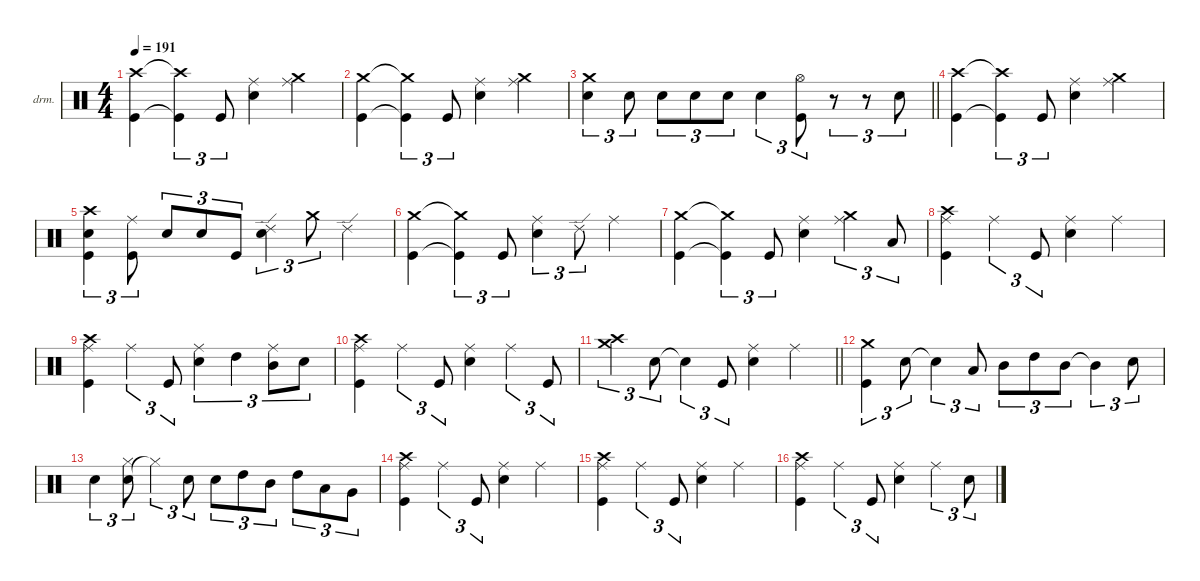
\defaultSystemsLayout 4
\hideDynamics
\bracketExtendMode nobrackets
\firstSystemTrackNameOrientation horizontal
\otherSystemsTrackNameOrientation horizontal
\track ("Drumkit" "drm.") {instrument percussion}
\staff {score}
\articulation defaults
\ts (4 4)
\tempo 191
\clef neutral
\ks c
("Kick (hit)" "Crash high (hit)").4{dy f beam Down} ("Kick (hit)"{t} "Crash high (hit)"{t}).4{tu (3 2) dy mf beam Down} "Kick (hit)".8{tu (3 2) dy f beam Up} ("Snare (hit) 2" "Ride (middle)").4{beam Down} ("Crash medium (hit)" "Ride (middle)").4{dy mp beam Down} |
("Kick (hit)" "Crash medium (hit)").4{dy f beam Down} ("Kick (hit)"{t} "Crash medium (hit)"{t}).4{tu (3 2) dy mf beam Down} "Kick (hit)".8{tu (3 2) dy f beam Up} ("Snare (hit) 2" "Ride (middle)").4{beam Down} ("Crash medium (hit)" "Ride (middle)").4{dy mp beam Down} |
\barLineRight lightlight
("Snare (hit) 2" "Crash medium (hit)").4{tu (3 2) dy f beam Down} "Snare (hit) 2".8{tu (3 2) beam Down} "Snare (hit) 2".8{tu (3 2) beam Down} "Snare (hit) 2".8{tu (3 2) beam Down} "Snare (hit) 2".8{tu (3 2) beam Down} "Snare (hit) 2".4{tu (3 2) beam Down} ("Kick (hit)" "Hi-Hat (open)").8{tu (3 2) dy mf beam Down} r.8{tu (3 2) beam Down} r.8{tu (3 2) beam Down} "Snare (hit) 2".8{tu (3 2) dy f beam Down} |
("Kick (hit)" "Crash high (hit)").4{beam Down} ("Kick (hit)"{t} "Crash high (hit)"{t}).4{tu (3 2) dy mf beam Down} "Kick (hit)".8{tu (3 2) dy f beam Up} ("Snare (hit) 2" "Ride (middle)").4{beam Down} ("Crash medium (hit)" "Ride (middle)").4{dy mp beam Down} |
("Kick (hit)" "Crash high (hit)" "Snare (hit) 2").4{tu (3 2) dy f beam Down} ("Ride (middle)" "Kick (hit)").8{tu (3 2) dy mp beam Down} "Snare (hit) 2".8{tu (3 2) dy mf beam Up} "Snare (hit) 2".8{tu (3 2) beam Up} "Kick (hit)".8{tu (3 2) dy f beam Up} ("Snare (hit) 2" "Ride (edge) 2").4{tu (3 2) beam Down} "Crash medium (hit)".8{tu (3 2) dy mp beam Down} "Ride (edge) 2".4{beam Down} |
("Kick (hit)" "Crash medium (hit)").4{dy f beam Down} ("Kick (hit)"{t} "Crash medium (hit)"{t}).4{tu (3 2) dy mf beam Down} "Kick (hit)".8{tu (3 2) dy f beam Up} ("Snare (hit) 2" "Ride (middle)").4{tu (3 2) beam Down} "Ride (edge) 2".8{tu (3 2) dy mp beam Down} "Ride (middle)".4{dy mf beam Down} |
("Kick (hit)" "Crash medium (hit)").4{dy f beam Down} ("Kick (hit)"{t} "Crash medium (hit)"{t}).4{tu (3 2) dy mf beam Down} "Kick (hit)".8{tu (3 2) dy f beam Up} ("Snare (hit) 2" "Ride (middle)").4{beam Down} ("Crash medium (hit)" "Ride (middle)").4{tu (3 2) dy mp beam Down} "Low Tom (hit)".8{tu (3 2) beam Up} |
("Kick (hit)" "Crash high (hit)" "Ride (middle)").4{dy f beam Down} "Ride (middle)".4{tu (3 2) dy mp beam Down} "Kick (hit)".8{tu (3 2) dy f beam Up} ("Snare (hit) 2" "Ride (middle)").4{beam Down} "Ride (middle)".4{dy mp beam Down} |
("Kick (hit)" "Crash high (hit)" "Ride (middle)").4{dy f beam Down} "Ride (middle)".4{tu (3 2) dy mp beam Down} "Kick (hit)".8{tu (3 2) dy f beam Up} ("Snare (hit) 2" "Ride (middle)").4{tu (3 2) beam Down} "High Tom (hit)".4{tu (3 2) beam Down} ("Mid Tom (hit)" "Ride (middle)").8{tu (3 2) beam Down} "Snare (hit) 2".8{tu (3 2) beam Down} |
("Kick (hit)" "Crash high (hit)" "Ride (middle)").4{beam Down} "Ride (middle)".4{tu (3 2) dy mp beam Down} "Kick (hit)".8{tu (3 2) dy f beam Up} ("Snare (hit) 2" "Ride (middle)").4{beam Down} "Ride (middle)".4{tu (3 2) dy mp beam Down} "Kick (hit)".8{tu (3 2) beam Up} |
\barLineRight lightlight
("Crash high (hit)" "Crash medium (hit)").4{tu (3 2) beam Down} "Snare (hit) 2".8{tu (3 2) dy f beam Down} "Snare (hit) 2"{t}.4{tu (3 2) beam Down} "Kick (hit)".8{tu (3 2) beam Up} ("Snare (hit) 2" "Ride (middle)").4{beam Down} "Ride (middle)".4{dy mp beam Down} |
("Kick (hit)" "Crash medium (hit)").4{tu (3 2) dy f beam Down} "Snare (hit) 2".8{tu (3 2) beam Down} "Snare (hit) 2"{t}.4{tu (3 2) beam Down} "Low Tom (hit)".8{tu (3 2) beam Up} "Mid Tom (hit)".8{tu (3 2) beam Down} "High Tom (hit)".8{tu (3 2) beam Down} "Mid Tom (hit)".8{tu (3 2) beam Down} "Mid Tom (hit)"{t}.4{tu (3 2) beam Down} "Snare (hit) 2".8{tu (3 2) beam Down} |
"Snare (hit) 2".4{tu (3 2) beam Down} ("Snare (hit) 2" "Hi-Hat (closed)").8{tu (3 2) beam Down} "Hi-Hat (closed)"{t}.4{tu (3 2) beam Down} "Snare (hit) 2".8{tu (3 2) beam Down} "Snare (hit) 2".8{tu (3 2) beam Down} "High Tom (hit)".8{tu (3 2) beam Down} "Mid Tom (hit)".8{tu (3 2) beam Down} "High Tom (hit)".8{tu (3 2) beam Down} "Low Tom (hit)".8{tu (3 2) beam Down} "Very Low Tom (hit)".8{tu (3 2) beam Down} |
("Kick (hit)" "Crash high (hit)" "Ride (middle)").4{beam Down} "Ride (middle)".4{tu (3 2) dy mp beam Down} "Kick (hit)".8{tu (3 2) dy f beam Up} ("Snare (hit) 2" "Ride (middle)").4{beam Down} "Ride (middle)".4{dy mp beam Down} |
("Kick (hit)" "Crash high (hit)" "Ride (middle)").4{dy f beam Down} "Ride (middle)".4{tu (3 2) dy mp beam Down} "Kick (hit)".8{tu (3 2) dy f beam Up} ("Snare (hit) 2" "Ride (middle)").4{beam Down} "Ride (middle)".4{dy mp beam Down} |
("Kick (hit)" "Crash high (hit)" "Ride (middle)").4{dy f beam Down} "Ride (middle)".4{tu (3 2) dy mp beam Down} "Kick (hit)".8{tu (3 2) dy f beam Up} ("Snare (hit) 2" "Ride (middle)").4{beam Down} "Ride (middle)".4{tu (3 2) dy mp beam Down} "Snare (hit) 2".8{tu (3 2) dy f beam Down}
